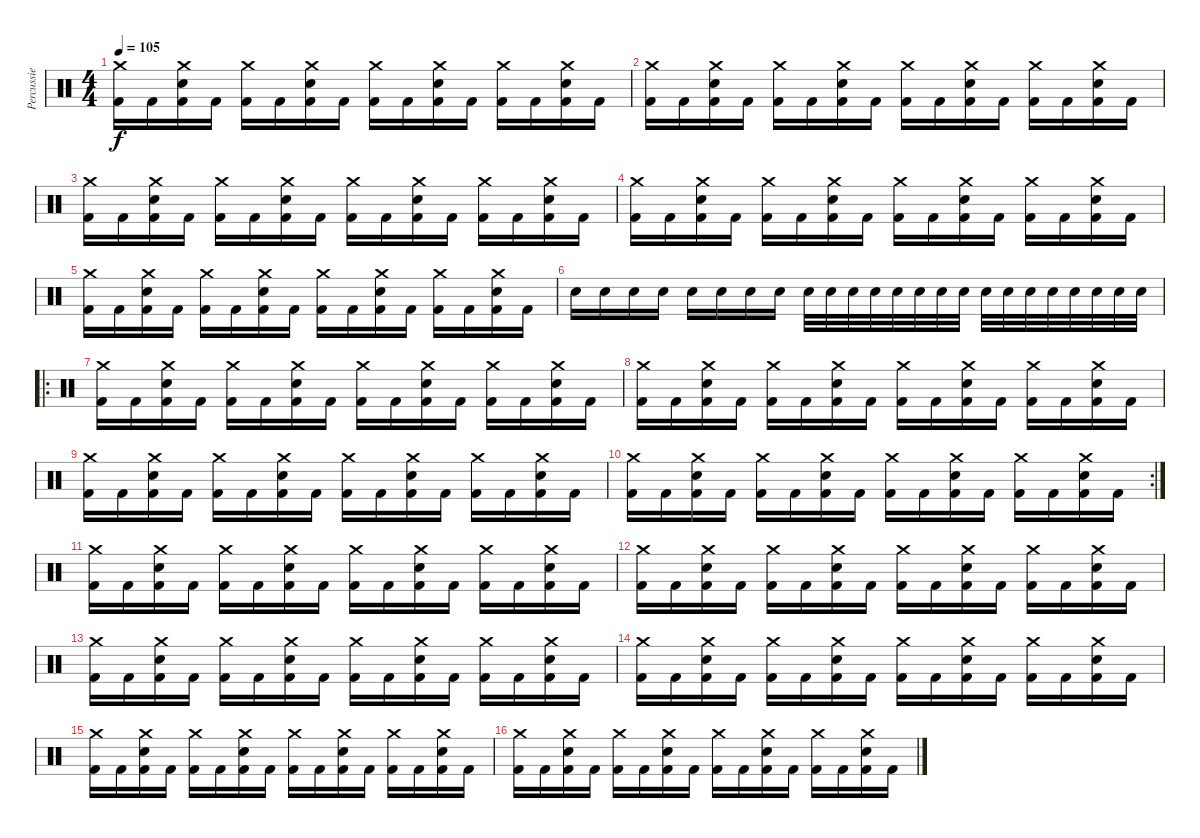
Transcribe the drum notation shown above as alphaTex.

\track ("Percussie" "Percussie") {instrument percussion}
\staff {score}
\articulation defaults
\ts (4 4)
\tempo 105
\clef neutral
\ks c
("Crash medium (hit)" "Kick (hit) 2").16{dy f} "Kick (hit) 2".16 ("Crash medium (hit)" "Electric Snare (hit)" "Kick (hit) 2").16 "Kick (hit) 2".16 ("Crash medium (hit)" "Kick (hit) 2").16 "Kick (hit) 2".16 ("Crash medium (hit)" "Electric Snare (hit)" "Kick (hit) 2").16 "Kick (hit) 2".16 ("Crash medium (hit)" "Kick (hit) 2").16 "Kick (hit) 2".16 ("Crash medium (hit)" "Electric Snare (hit)" "Kick (hit) 2").16 "Kick (hit) 2".16 ("Crash medium (hit)" "Kick (hit) 2").16 "Kick (hit) 2".16 ("Crash medium (hit)" "Electric Snare (hit)" "Kick (hit) 2").16 "Kick (hit) 2".16 |
("Crash medium (hit)" "Kick (hit) 2").16 "Kick (hit) 2".16 ("Crash medium (hit)" "Electric Snare (hit)" "Kick (hit) 2").16 "Kick (hit) 2".16 ("Crash medium (hit)" "Kick (hit) 2").16 "Kick (hit) 2".16 ("Crash medium (hit)" "Electric Snare (hit)" "Kick (hit) 2").16 "Kick (hit) 2".16 ("Crash medium (hit)" "Kick (hit) 2").16 "Kick (hit) 2".16 ("Crash medium (hit)" "Electric Snare (hit)" "Kick (hit) 2").16 "Kick (hit) 2".16 ("Crash medium (hit)" "Kick (hit) 2").16 "Kick (hit) 2".16 ("Crash medium (hit)" "Electric Snare (hit)" "Kick (hit) 2").16 "Kick (hit) 2".16 |
("Crash medium (hit)" "Kick (hit) 2").16 "Kick (hit) 2".16 ("Crash medium (hit)" "Electric Snare (hit)" "Kick (hit) 2").16 "Kick (hit) 2".16 ("Crash medium (hit)" "Kick (hit) 2").16 "Kick (hit) 2".16 ("Crash medium (hit)" "Electric Snare (hit)" "Kick (hit) 2").16 "Kick (hit) 2".16 ("Crash medium (hit)" "Kick (hit) 2").16 "Kick (hit) 2".16 ("Crash medium (hit)" "Electric Snare (hit)" "Kick (hit) 2").16 "Kick (hit) 2".16 ("Crash medium (hit)" "Kick (hit) 2").16 "Kick (hit) 2".16 ("Crash medium (hit)" "Electric Snare (hit)" "Kick (hit) 2").16 "Kick (hit) 2".16 |
("Crash medium (hit)" "Kick (hit) 2").16 "Kick (hit) 2".16 ("Crash medium (hit)" "Electric Snare (hit)" "Kick (hit) 2").16 "Kick (hit) 2".16 ("Crash medium (hit)" "Kick (hit) 2").16 "Kick (hit) 2".16 ("Crash medium (hit)" "Electric Snare (hit)" "Kick (hit) 2").16 "Kick (hit) 2".16 ("Crash medium (hit)" "Kick (hit) 2").16 "Kick (hit) 2".16 ("Crash medium (hit)" "Electric Snare (hit)" "Kick (hit) 2").16 "Kick (hit) 2".16 ("Crash medium (hit)" "Kick (hit) 2").16 "Kick (hit) 2".16 ("Crash medium (hit)" "Electric Snare (hit)" "Kick (hit) 2").16 "Kick (hit) 2".16 |
("Crash medium (hit)" "Kick (hit) 2").16 "Kick (hit) 2".16 ("Crash medium (hit)" "Electric Snare (hit)" "Kick (hit) 2").16 "Kick (hit) 2".16 ("Crash medium (hit)" "Kick (hit) 2").16 "Kick (hit) 2".16 ("Crash medium (hit)" "Electric Snare (hit)" "Kick (hit) 2").16 "Kick (hit) 2".16 ("Crash medium (hit)" "Kick (hit) 2").16 "Kick (hit) 2".16 ("Crash medium (hit)" "Electric Snare (hit)" "Kick (hit) 2").16 "Kick (hit) 2".16 ("Crash medium (hit)" "Kick (hit) 2").16 "Kick (hit) 2".16 ("Crash medium (hit)" "Electric Snare (hit)" "Kick (hit) 2").16 "Kick (hit) 2".16 |
"Electric Snare (hit)".16 "Electric Snare (hit)".16 "Electric Snare (hit)".16 "Electric Snare (hit)".16 "Electric Snare (hit)".16 "Electric Snare (hit)".16 "Electric Snare (hit)".16 "Electric Snare (hit)".16 "Electric Snare (hit)".32 "Electric Snare (hit)".32 "Electric Snare (hit)".32 "Electric Snare (hit)".32 "Electric Snare (hit)".32 "Electric Snare (hit)".32 "Electric Snare (hit)".32 "Electric Snare (hit)".32 "Electric Snare (hit)".32 "Electric Snare (hit)".32 "Electric Snare (hit)".32 "Electric Snare (hit)".32 "Electric Snare (hit)".32 "Electric Snare (hit)".32 "Electric Snare (hit)".32 "Electric Snare (hit)".32 |
\ro
("Crash medium (hit)" "Kick (hit) 2").16 "Kick (hit) 2".16 ("Crash medium (hit)" "Electric Snare (hit)" "Kick (hit) 2").16 "Kick (hit) 2".16 ("Crash medium (hit)" "Kick (hit) 2").16 "Kick (hit) 2".16 ("Crash medium (hit)" "Electric Snare (hit)" "Kick (hit) 2").16 "Kick (hit) 2".16 ("Crash medium (hit)" "Kick (hit) 2").16 "Kick (hit) 2".16 ("Crash medium (hit)" "Electric Snare (hit)" "Kick (hit) 2").16 "Kick (hit) 2".16 ("Crash medium (hit)" "Kick (hit) 2").16 "Kick (hit) 2".16 ("Crash medium (hit)" "Electric Snare (hit)" "Kick (hit) 2").16 "Kick (hit) 2".16 |
("Crash medium (hit)" "Kick (hit) 2").16 "Kick (hit) 2".16 ("Crash medium (hit)" "Electric Snare (hit)" "Kick (hit) 2").16 "Kick (hit) 2".16 ("Crash medium (hit)" "Kick (hit) 2").16 "Kick (hit) 2".16 ("Crash medium (hit)" "Electric Snare (hit)" "Kick (hit) 2").16 "Kick (hit) 2".16 ("Crash medium (hit)" "Kick (hit) 2").16 "Kick (hit) 2".16 ("Crash medium (hit)" "Electric Snare (hit)" "Kick (hit) 2").16 "Kick (hit) 2".16 ("Crash medium (hit)" "Kick (hit) 2").16 "Kick (hit) 2".16 ("Crash medium (hit)" "Electric Snare (hit)" "Kick (hit) 2").16 "Kick (hit) 2".16 |
("Crash medium (hit)" "Kick (hit) 2").16 "Kick (hit) 2".16 ("Crash medium (hit)" "Electric Snare (hit)" "Kick (hit) 2").16 "Kick (hit) 2".16 ("Crash medium (hit)" "Kick (hit) 2").16 "Kick (hit) 2".16 ("Crash medium (hit)" "Electric Snare (hit)" "Kick (hit) 2").16 "Kick (hit) 2".16 ("Crash medium (hit)" "Kick (hit) 2").16 "Kick (hit) 2".16 ("Crash medium (hit)" "Electric Snare (hit)" "Kick (hit) 2").16 "Kick (hit) 2".16 ("Crash medium (hit)" "Kick (hit) 2").16 "Kick (hit) 2".16 ("Crash medium (hit)" "Electric Snare (hit)" "Kick (hit) 2").16 "Kick (hit) 2".16 |
\rc 2
("Crash medium (hit)" "Kick (hit) 2").16 "Kick (hit) 2".16 ("Crash medium (hit)" "Electric Snare (hit)" "Kick (hit) 2").16 "Kick (hit) 2".16 ("Crash medium (hit)" "Kick (hit) 2").16 "Kick (hit) 2".16 ("Crash medium (hit)" "Electric Snare (hit)" "Kick (hit) 2").16 "Kick (hit) 2".16 ("Crash medium (hit)" "Kick (hit) 2").16 "Kick (hit) 2".16 ("Crash medium (hit)" "Electric Snare (hit)" "Kick (hit) 2").16 "Kick (hit) 2".16 ("Crash medium (hit)" "Kick (hit) 2").16 "Kick (hit) 2".16 ("Crash medium (hit)" "Electric Snare (hit)" "Kick (hit) 2").16 "Kick (hit) 2".16 |
("Crash medium (hit)" "Kick (hit) 2").16 "Kick (hit) 2".16 ("Crash medium (hit)" "Electric Snare (hit)" "Kick (hit) 2").16 "Kick (hit) 2".16 ("Crash medium (hit)" "Kick (hit) 2").16 "Kick (hit) 2".16 ("Crash medium (hit)" "Electric Snare (hit)" "Kick (hit) 2").16 "Kick (hit) 2".16 ("Crash medium (hit)" "Kick (hit) 2").16 "Kick (hit) 2".16 ("Crash medium (hit)" "Electric Snare (hit)" "Kick (hit) 2").16 "Kick (hit) 2".16 ("Crash medium (hit)" "Kick (hit) 2").16 "Kick (hit) 2".16 ("Crash medium (hit)" "Electric Snare (hit)" "Kick (hit) 2").16 "Kick (hit) 2".16 |
("Crash medium (hit)" "Kick (hit) 2").16 "Kick (hit) 2".16 ("Crash medium (hit)" "Electric Snare (hit)" "Kick (hit) 2").16 "Kick (hit) 2".16 ("Crash medium (hit)" "Kick (hit) 2").16 "Kick (hit) 2".16 ("Crash medium (hit)" "Electric Snare (hit)" "Kick (hit) 2").16 "Kick (hit) 2".16 ("Crash medium (hit)" "Kick (hit) 2").16 "Kick (hit) 2".16 ("Crash medium (hit)" "Electric Snare (hit)" "Kick (hit) 2").16 "Kick (hit) 2".16 ("Crash medium (hit)" "Kick (hit) 2").16 "Kick (hit) 2".16 ("Crash medium (hit)" "Electric Snare (hit)" "Kick (hit) 2").16 "Kick (hit) 2".16 |
("Crash medium (hit)" "Kick (hit) 2").16 "Kick (hit) 2".16 ("Crash medium (hit)" "Electric Snare (hit)" "Kick (hit) 2").16 "Kick (hit) 2".16 ("Crash medium (hit)" "Kick (hit) 2").16 "Kick (hit) 2".16 ("Crash medium (hit)" "Electric Snare (hit)" "Kick (hit) 2").16 "Kick (hit) 2".16 ("Crash medium (hit)" "Kick (hit) 2").16 "Kick (hit) 2".16 ("Crash medium (hit)" "Electric Snare (hit)" "Kick (hit) 2").16 "Kick (hit) 2".16 ("Crash medium (hit)" "Kick (hit) 2").16 "Kick (hit) 2".16 ("Crash medium (hit)" "Electric Snare (hit)" "Kick (hit) 2").16 "Kick (hit) 2".16 |
("Crash medium (hit)" "Kick (hit) 2").16 "Kick (hit) 2".16 ("Crash medium (hit)" "Electric Snare (hit)" "Kick (hit) 2").16 "Kick (hit) 2".16 ("Crash medium (hit)" "Kick (hit) 2").16 "Kick (hit) 2".16 ("Crash medium (hit)" "Electric Snare (hit)" "Kick (hit) 2").16 "Kick (hit) 2".16 ("Crash medium (hit)" "Kick (hit) 2").16 "Kick (hit) 2".16 ("Crash medium (hit)" "Electric Snare (hit)" "Kick (hit) 2").16 "Kick (hit) 2".16 ("Crash medium (hit)" "Kick (hit) 2").16 "Kick (hit) 2".16 ("Crash medium (hit)" "Electric Snare (hit)" "Kick (hit) 2").16 "Kick (hit) 2".16 |
("Crash medium (hit)" "Kick (hit) 2").16 "Kick (hit) 2".16 ("Crash medium (hit)" "Electric Snare (hit)" "Kick (hit) 2").16 "Kick (hit) 2".16 ("Crash medium (hit)" "Kick (hit) 2").16 "Kick (hit) 2".16 ("Crash medium (hit)" "Electric Snare (hit)" "Kick (hit) 2").16 "Kick (hit) 2".16 ("Crash medium (hit)" "Kick (hit) 2").16 "Kick (hit) 2".16 ("Crash medium (hit)" "Electric Snare (hit)" "Kick (hit) 2").16 "Kick (hit) 2".16 ("Crash medium (hit)" "Kick (hit) 2").16 "Kick (hit) 2".16 ("Crash medium (hit)" "Electric Snare (hit)" "Kick (hit) 2").16 "Kick (hit) 2".16 |
("Crash medium (hit)" "Kick (hit) 2").16 "Kick (hit) 2".16 ("Crash medium (hit)" "Electric Snare (hit)" "Kick (hit) 2").16 "Kick (hit) 2".16 ("Crash medium (hit)" "Kick (hit) 2").16 "Kick (hit) 2".16 ("Crash medium (hit)" "Electric Snare (hit)" "Kick (hit) 2").16 "Kick (hit) 2".16 ("Crash medium (hit)" "Kick (hit) 2").16 "Kick (hit) 2".16 ("Crash medium (hit)" "Electric Snare (hit)" "Kick (hit) 2").16 "Kick (hit) 2".16 ("Crash medium (hit)" "Kick (hit) 2").16 "Kick (hit) 2".16 ("Crash medium (hit)" "Electric Snare (hit)" "Kick (hit) 2").16 "Kick (hit) 2".16
